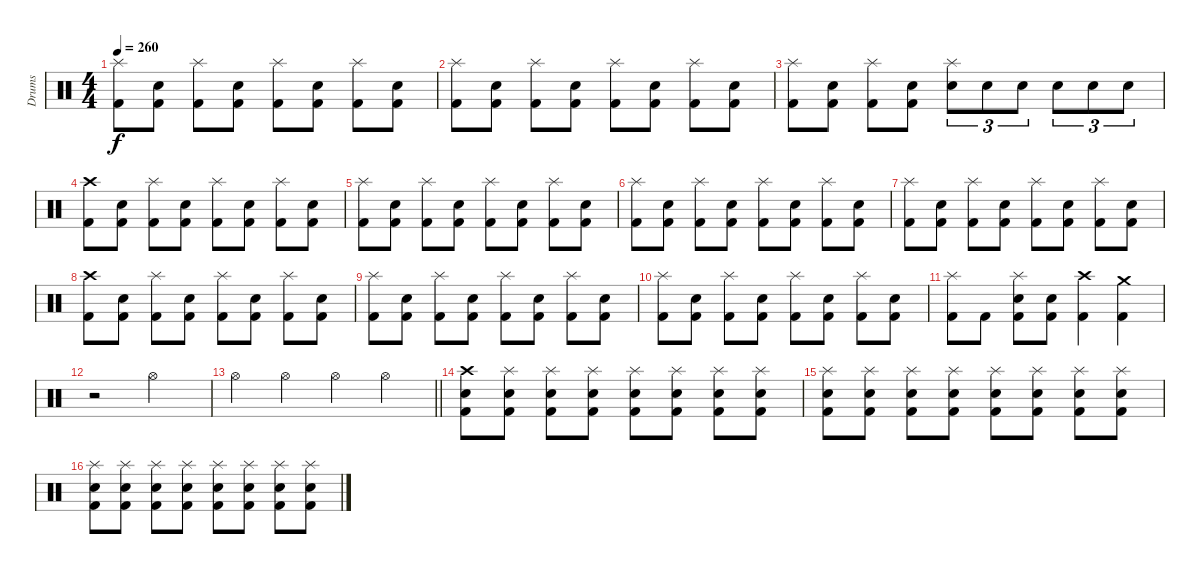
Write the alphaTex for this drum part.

\track ("Drums" "Drums") {instrument percussion}
\staff {score}
\articulation defaults
\ts (4 4)
\tempo 260
\clef neutral
\ks c
("Splash (hit)" "Kick (hit) 2").8{dy f} ("Electric Snare (hit)" "Kick (hit) 2").8 ("Splash (hit)" "Kick (hit) 2").8 ("Electric Snare (hit)" "Kick (hit) 2").8 ("Splash (hit)" "Kick (hit) 2").8 ("Electric Snare (hit)" "Kick (hit) 2").8 ("Splash (hit)" "Kick (hit) 2").8 ("Electric Snare (hit)" "Kick (hit) 2").8 |
("Splash (hit)" "Kick (hit) 2").8 ("Electric Snare (hit)" "Kick (hit) 2").8 ("Splash (hit)" "Kick (hit) 2").8 ("Electric Snare (hit)" "Kick (hit) 2").8 ("Splash (hit)" "Kick (hit) 2").8 ("Electric Snare (hit)" "Kick (hit) 2").8 ("Splash (hit)" "Kick (hit) 2").8 ("Electric Snare (hit)" "Kick (hit) 2").8 |
("Splash (hit)" "Kick (hit) 2").8 ("Electric Snare (hit)" "Kick (hit) 2").8 ("Splash (hit)" "Kick (hit) 2").8 ("Electric Snare (hit)" "Kick (hit) 2").8 ("Splash (hit)" "Electric Snare (hit)").8{tu (3 2)} "Electric Snare (hit)".8{tu (3 2)} "Electric Snare (hit)".8{tu (3 2)} "Electric Snare (hit)".8{tu (3 2)} "Electric Snare (hit)".8{tu (3 2)} "Electric Snare (hit)".8{tu (3 2)} |
("Crash high (hit)" "Kick (hit) 2").8 ("Electric Snare (hit)" "Kick (hit) 2").8 ("Splash (hit)" "Kick (hit) 2").8 ("Electric Snare (hit)" "Kick (hit) 2").8 ("Splash (hit)" "Kick (hit) 2").8 ("Electric Snare (hit)" "Kick (hit) 2").8 ("Splash (hit)" "Kick (hit) 2").8 ("Electric Snare (hit)" "Kick (hit) 2").8 |
("Splash (hit)" "Kick (hit) 2").8 ("Electric Snare (hit)" "Kick (hit) 2").8 ("Splash (hit)" "Kick (hit) 2").8 ("Electric Snare (hit)" "Kick (hit) 2").8 ("Splash (hit)" "Kick (hit) 2").8 ("Electric Snare (hit)" "Kick (hit) 2").8 ("Splash (hit)" "Kick (hit) 2").8 ("Electric Snare (hit)" "Kick (hit) 2").8 |
("Splash (hit)" "Kick (hit) 2").8 ("Electric Snare (hit)" "Kick (hit) 2").8 ("Splash (hit)" "Kick (hit) 2").8 ("Electric Snare (hit)" "Kick (hit) 2").8 ("Splash (hit)" "Kick (hit) 2").8 ("Electric Snare (hit)" "Kick (hit) 2").8 ("Splash (hit)" "Kick (hit) 2").8 ("Electric Snare (hit)" "Kick (hit) 2").8 |
("Splash (hit)" "Kick (hit) 2").8 ("Electric Snare (hit)" "Kick (hit) 2").8 ("Splash (hit)" "Kick (hit) 2").8 ("Electric Snare (hit)" "Kick (hit) 2").8 ("Splash (hit)" "Kick (hit) 2").8 ("Electric Snare (hit)" "Kick (hit) 2").8 ("Splash (hit)" "Kick (hit) 2").8 ("Electric Snare (hit)" "Kick (hit) 2").8 |
("Crash high (hit)" "Kick (hit) 2").8 ("Electric Snare (hit)" "Kick (hit) 2").8 ("Splash (hit)" "Kick (hit) 2").8 ("Electric Snare (hit)" "Kick (hit) 2").8 ("Splash (hit)" "Kick (hit) 2").8 ("Electric Snare (hit)" "Kick (hit) 2").8 ("Splash (hit)" "Kick (hit) 2").8 ("Electric Snare (hit)" "Kick (hit) 2").8 |
("Splash (hit)" "Kick (hit) 2").8 ("Electric Snare (hit)" "Kick (hit) 2").8 ("Splash (hit)" "Kick (hit) 2").8 ("Electric Snare (hit)" "Kick (hit) 2").8 ("Splash (hit)" "Kick (hit) 2").8 ("Electric Snare (hit)" "Kick (hit) 2").8 ("Splash (hit)" "Kick (hit) 2").8 ("Electric Snare (hit)" "Kick (hit) 2").8 |
("Splash (hit)" "Kick (hit) 2").8 ("Electric Snare (hit)" "Kick (hit) 2").8 ("Splash (hit)" "Kick (hit) 2").8 ("Electric Snare (hit)" "Kick (hit) 2").8 ("Splash (hit)" "Kick (hit) 2").8 ("Electric Snare (hit)" "Kick (hit) 2").8 ("Splash (hit)" "Kick (hit) 2").8 ("Electric Snare (hit)" "Kick (hit) 2").8 |
("Splash (hit)" "Kick (hit) 2").8 "Kick (hit) 2".8 ("Splash (hit)" "Electric Snare (hit)" "Kick (hit) 2").8 ("Electric Snare (hit)" "Kick (hit) 2").8 ("Crash high (hit)" "Kick (hit) 2").4 ("Crash medium (hit)" "Kick (hit) 2").4 |
r.2 "Hi-Hat (open)".2 |
\barLineRight lightlight "Hi-Hat (open)".4 "Hi-Hat (open)".4 "Hi-Hat (open)".4 "Hi-Hat (open)".4
|
("Crash high (hit)" "Electric Snare (hit)" "Kick (hit) 2").8 ("Splash (hit)" "Electric Snare (hit)" "Kick (hit) 2").8 ("Splash (hit)" "Electric Snare (hit)" "Kick (hit) 2").8 ("Splash (hit)" "Electric Snare (hit)" "Kick (hit) 2").8 ("Splash (hit)" "Electric Snare (hit)" "Kick (hit) 2").8 ("Splash (hit)" "Electric Snare (hit)" "Kick (hit) 2").8 ("Splash (hit)" "Electric Snare (hit)" "Kick (hit) 2").8 ("Splash (hit)" "Electric Snare (hit)" "Kick (hit) 2").8 |
("Splash (hit)" "Electric Snare (hit)" "Kick (hit) 2").8 ("Splash (hit)" "Electric Snare (hit)" "Kick (hit) 2").8 ("Splash (hit)" "Electric Snare (hit)" "Kick (hit) 2").8 ("Splash (hit)" "Electric Snare (hit)" "Kick (hit) 2").8 ("Splash (hit)" "Electric Snare (hit)" "Kick (hit) 2").8 ("Splash (hit)" "Electric Snare (hit)" "Kick (hit) 2").8 ("Splash (hit)" "Electric Snare (hit)" "Kick (hit) 2").8 ("Splash (hit)" "Electric Snare (hit)" "Kick (hit) 2").8 |
("Splash (hit)" "Electric Snare (hit)" "Kick (hit) 2").8 ("Splash (hit)" "Electric Snare (hit)" "Kick (hit) 2").8 ("Splash (hit)" "Electric Snare (hit)" "Kick (hit) 2").8 ("Splash (hit)" "Electric Snare (hit)" "Kick (hit) 2").8 ("Splash (hit)" "Electric Snare (hit)" "Kick (hit) 2").8 ("Splash (hit)" "Electric Snare (hit)" "Kick (hit) 2").8 ("Splash (hit)" "Electric Snare (hit)" "Kick (hit) 2").8 ("Splash (hit)" "Electric Snare (hit)" "Kick (hit) 2").8
